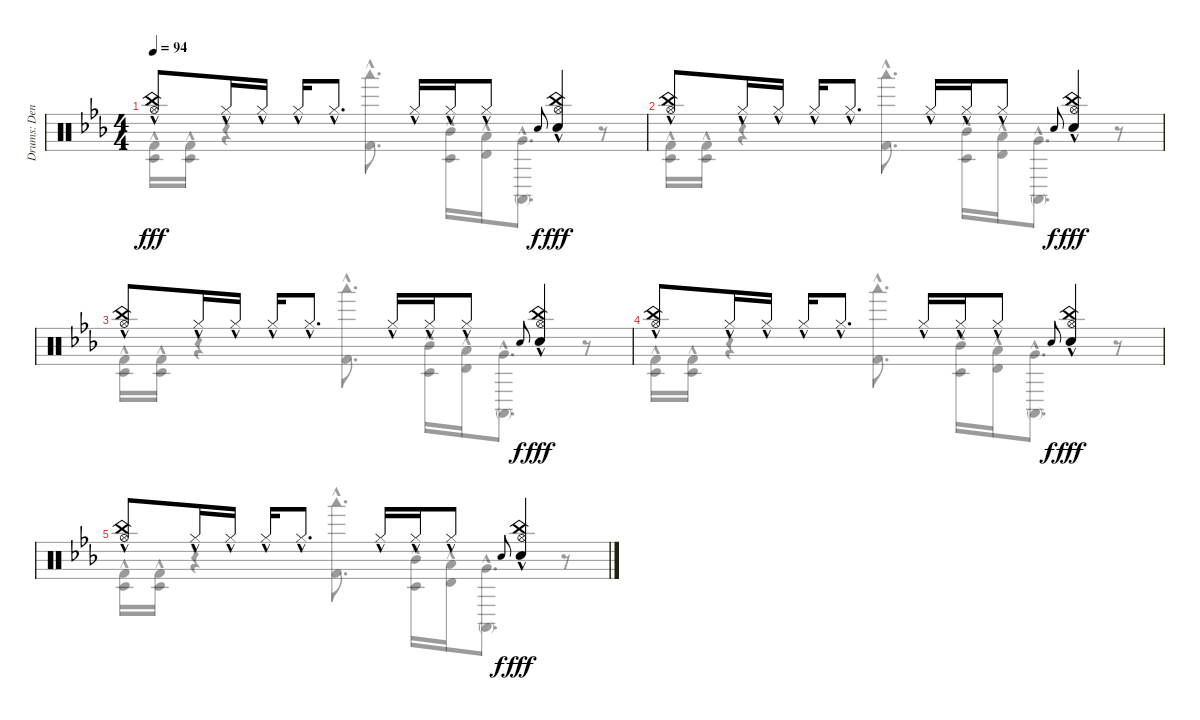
\track ("Drums: Denny" "Drums: Den") {instrument percussion}
\staff {score}
\articulation defaults
\voice
\ts (4 4)
\tempo 94
\clef neutral
\ks eb
("China (hit)"{hac} "Hi-Hat (open)"{hac}).8{dy fff} "Hi-Hat (closed)"{hac}.16 "Hi-Hat (closed)"{hac}.16 "Hi-Hat (closed)"{hac}.16 "Hi-Hat (closed)"{hac}.8{d} "Hi-Hat (closed)"{hac}.16 "Hi-Hat (closed)"{hac}.16 "Hi-Hat (closed)"{hac}.8 "Electric Snare (hit)".8{gr onbeat dy f} ("China (hit)"{hac} "Hi-Hat (open)"{hac} "Snare (hit) 2"{hac}).4{dy fff} |
("China (hit)"{hac} "Hi-Hat (open)"{hac}).8{volume 0} "Hi-Hat (closed)"{hac}.16 "Hi-Hat (closed)"{hac}.16 "Hi-Hat (closed)"{hac}.16 "Hi-Hat (closed)"{hac}.8{d} "Hi-Hat (closed)"{hac}.16 "Hi-Hat (closed)"{hac}.16 "Hi-Hat (closed)"{hac}.8 "Electric Snare (hit)".8{gr onbeat dy f} ("China (hit)"{hac} "Hi-Hat (open)"{hac} "Snare (hit) 2"{hac}).4{dy fff} |
("China (hit)"{hac} "Hi-Hat (open)"{hac}).8 "Hi-Hat (closed)"{hac}.16 "Hi-Hat (closed)"{hac}.16 "Hi-Hat (closed)"{hac}.16 "Hi-Hat (closed)"{hac}.8{d} "Hi-Hat (closed)"{hac}.16 "Hi-Hat (closed)"{hac}.16 "Hi-Hat (closed)"{hac}.8 "Electric Snare (hit)".8{gr onbeat dy f} ("China (hit)"{hac} "Hi-Hat (open)"{hac} "Snare (hit) 2"{hac}).4{dy fff} |
("China (hit)"{hac} "Hi-Hat (open)"{hac}).8 "Hi-Hat (closed)"{hac}.16 "Hi-Hat (closed)"{hac}.16 "Hi-Hat (closed)"{hac}.16 "Hi-Hat (closed)"{hac}.8{d} "Hi-Hat (closed)"{hac}.16 "Hi-Hat (closed)"{hac}.16 "Hi-Hat (closed)"{hac}.8 "Electric Snare (hit)".8{gr onbeat dy f} ("China (hit)"{hac} "Hi-Hat (open)"{hac} "Snare (hit) 2"{hac}).4{dy fff} |
("China (hit)"{hac} "Hi-Hat (open)"{hac}).8 "Hi-Hat (closed)"{hac}.16 "Hi-Hat (closed)"{hac}.16 "Hi-Hat (closed)"{hac}.16 "Hi-Hat (closed)"{hac}.8{d} "Hi-Hat (closed)"{hac}.16 "Hi-Hat (closed)"{hac}.16 "Hi-Hat (closed)"{hac}.8 "Electric Snare (hit)".8{gr onbeat dy f} ("China (hit)"{hac} "Hi-Hat (open)"{hac} "Snare (hit) 2"{hac}).4{dy fff}
\voice
\clef neutral
\ottava regular
\simile none
\ks eb
("Kick (hit) 2"{hac} "Timbale low (hit)"{hac}).16{dy fff} ("Kick (hit) 2"{hac} "Timbale low (hit)"{hac}).16 r.4 ("Kick (hit) 2"{hac} "Woodblock low (hit)"{hac}).8{d} ("Mid Tom (hit)"{hac} "Timbale low (hit)"{hac}).16 ("Low Tom (hit)"{hac} "Timbale high (hit)"{hac}).16 ("Very Low Tom (hit)"{hac} "Conga high (mute)"{hac}).8{d} r.8 |
("Kick (hit) 2"{hac} "Timbale low (hit)"{hac}).16 ("Kick (hit) 2"{hac} "Timbale low (hit)"{hac}).16 r.4 ("Kick (hit) 2"{hac} "Woodblock low (hit)"{hac}).8{d} ("Mid Tom (hit)"{hac} "Timbale low (hit)"{hac}).16 ("Low Tom (hit)"{hac} "Timbale high (hit)"{hac}).16 ("Very Low Tom (hit)"{hac} "Conga high (mute)"{hac}).8{d} r.8 |
("Kick (hit) 2"{hac} "Timbale low (hit)"{hac}).16 ("Kick (hit) 2"{hac} "Timbale low (hit)"{hac}).16 r.4 ("Kick (hit) 2"{hac} "Woodblock low (hit)"{hac}).8{d} ("Mid Tom (hit)"{hac} "Timbale low (hit)"{hac}).16 ("Low Tom (hit)"{hac} "Timbale high (hit)"{hac}).16 ("Very Low Tom (hit)"{hac} "Conga high (mute)"{hac}).8{d} r.8 |
("Kick (hit) 2"{hac} "Timbale low (hit)"{hac}).16 ("Kick (hit) 2"{hac} "Timbale low (hit)"{hac}).16 r.4 ("Kick (hit) 2"{hac} "Woodblock low (hit)"{hac}).8{d} ("Mid Tom (hit)"{hac} "Timbale low (hit)"{hac}).16 ("Low Tom (hit)"{hac} "Timbale high (hit)"{hac}).16 ("Very Low Tom (hit)"{hac} "Conga high (mute)"{hac}).8{d} r.8 |
("Kick (hit) 2"{hac} "Timbale low (hit)"{hac}).16 ("Kick (hit) 2"{hac} "Timbale low (hit)"{hac}).16 r.4 ("Kick (hit) 2"{hac} "Woodblock low (hit)"{hac}).8{d} ("Mid Tom (hit)"{hac} "Timbale low (hit)"{hac}).16 ("Low Tom (hit)"{hac} "Timbale high (hit)"{hac}).16 ("Very Low Tom (hit)"{hac} "Conga high (mute)"{hac}).8{d} r.8
